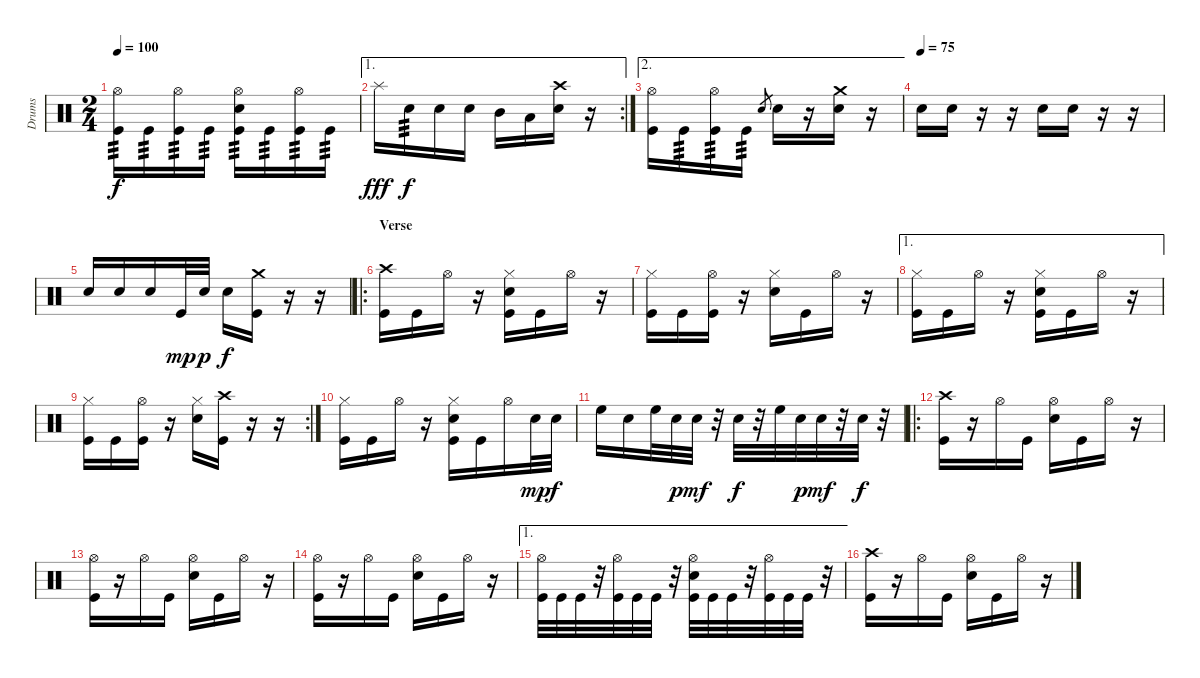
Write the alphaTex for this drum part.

\track ("Drums" "Drums") {instrument percussion}
\staff {score}
\articulation defaults
\ts (2 4)
\tempo 100
\clef neutral
\ks c
("Kick (hit)" "Hi-Hat (open)").16{tp 3 dy f} "Kick (hit)".16{tp 3} ("Kick (hit)" "Hi-Hat (open)").16{tp 3} "Kick (hit)".16{tp 3} ("Kick (hit)" "Hi-Hat (open)" "Electric Snare (hit)").16{tp 3} "Kick (hit)".16{tp 3} ("Kick (hit)" "Hi-Hat (open)").16{tp 3} "Kick (hit)".16{tp 3} |
\ae 1
\rc 2 "Splash (hit)".16{dy fff} "Electric Snare (hit)".16{tp 3 dy f} "Electric Snare (hit)".16 "Electric Snare (hit)".16 "Mid Tom (hit)".16 "Low Tom (hit)".16
("Electric Snare (hit)" "Crash high (hit)").16 r.16 |
\ae 2
("Kick (hit)" "Hi-Hat (open)").16 "Kick (hit)".16{tp 3} ("Kick (hit)" "Hi-Hat (open)").16{tp 3} "Kick (hit)".16{tp 3} "Electric Snare (hit)".8{gr} "Electric Snare (hit)".16 r.16 ("Crash medium (hit)" "Electric Snare (hit)").16 r.16 |
\tempo (75)
"Electric Snare (hit)".16 "Electric Snare (hit)".16 r.16 r.16 "Electric Snare (hit)".16 "Electric Snare (hit)".16 r.16 r.16 |
"Electric Snare (hit)".16 "Electric Snare (hit)".16 "Electric Snare (hit)".16 "Kick (hit)".32{dy mp} "Electric Snare (hit)".32{dy p} "Electric Snare (hit)".16{dy f} ("Crash medium (hit)" "Kick (hit)").16 r.16 r.16 |
\ro
\section ("" "Verse")
("Kick (hit)" "Crash high (hit)").16 "Kick (hit)".16 "Hi-Hat (open)".16 r.16 ("Kick (hit)" "Hi-Hat (closed)" "Electric Snare (hit)").16 "Kick (hit)".16 "Hi-Hat (open)".16 r.16 |
("Kick (hit)" "Hi-Hat (closed)").16 "Kick (hit)".16 ("Kick (hit)" "Hi-Hat (open)").16 r.16 ("Electric Snare (hit)" "Hi-Hat (closed)").16 "Kick (hit)".16 "Hi-Hat (open)".16 r.16 |
\ae 1
("Kick (hit)" "Hi-Hat (closed)").16 "Kick (hit)".16 "Hi-Hat (open)".16 r.16 ("Kick (hit)" "Hi-Hat (closed)" "Electric Snare (hit)").16 "Kick (hit)".16 "Hi-Hat (open)".16 r.16 |
\rc 2
("Kick (hit)" "Hi-Hat (closed)").16 "Kick (hit)".16 ("Kick (hit)" "Hi-Hat (open)").16 r.16 ("Electric Snare (hit)" "Hi-Hat (closed)").16 ("Kick (hit)" "Crash high (hit)").16 r.16 r.16 |
("Kick (hit)" "Hi-Hat (closed)").16 "Kick (hit)".16 "Hi-Hat (open)".16 r.16 ("Kick (hit)" "Hi-Hat (closed)" "Electric Snare (hit)").16 "Kick (hit)".16 "Hi-Hat (open)".16 "Electric Snare (hit)".32{dy mp} "Electric Snare (hit)".32{dy f} |
"High Floor Tom (hit)".16 "Electric Snare (hit)".16 "High Floor Tom (hit)".32 "Electric Snare (hit)".32{dy p} "Electric Snare (hit)".32{dy mf} r.32 "Electric Snare (hit)".32{dy f} r.32 "High Floor Tom (hit)".32 "Electric Snare (hit)".32{dy p} "Electric Snare (hit)".32{dy mf} r.32 "Electric Snare (hit)".32{dy f} r.32 |
\ro
("Crash high (hit)" "Kick (hit)").16 r.16 "Hi-Hat (open)".16 "Kick (hit)".16 ("Electric Snare (hit)" "Hi-Hat (open)").16 "Kick (hit)".16 "Hi-Hat (open)".16 r.16 |
("Kick (hit)" "Hi-Hat (open)").16 r.16 "Hi-Hat (open)".16 "Kick (hit)".16 ("Electric Snare (hit)" "Hi-Hat (open)").16 "Kick (hit)".16 "Hi-Hat (open)".16 r.16 |
("Kick (hit)" "Hi-Hat (open)").16 r.16 "Hi-Hat (open)".16 "Kick (hit)".16 ("Electric Snare (hit)" "Hi-Hat (open)").16 "Kick (hit)".16 "Hi-Hat (open)".16 r.16 |
\ae 1
("Hi-Hat (open)" "Kick (hit)").32 "Kick (hit)".32 "Kick (hit)".32 r.32 ("Hi-Hat (open)" "Kick (hit)").32 "Kick (hit)".32 "Kick (hit)".32 r.32 ("Hi-Hat (open)" "Electric Snare (hit)" "Kick (hit)").32 "Kick (hit)".32 "Kick (hit)".32 r.32 ("Hi-Hat (open)" "Kick (hit)").32 "Kick (hit)".32 "Kick (hit)".32 r.32 |
("Crash high (hit)" "Kick (hit)").16 r.16 "Hi-Hat (open)".16 "Kick (hit)".16 ("Electric Snare (hit)" "Hi-Hat (open)").16 "Kick (hit)".16 "Hi-Hat (open)".16 r.16
